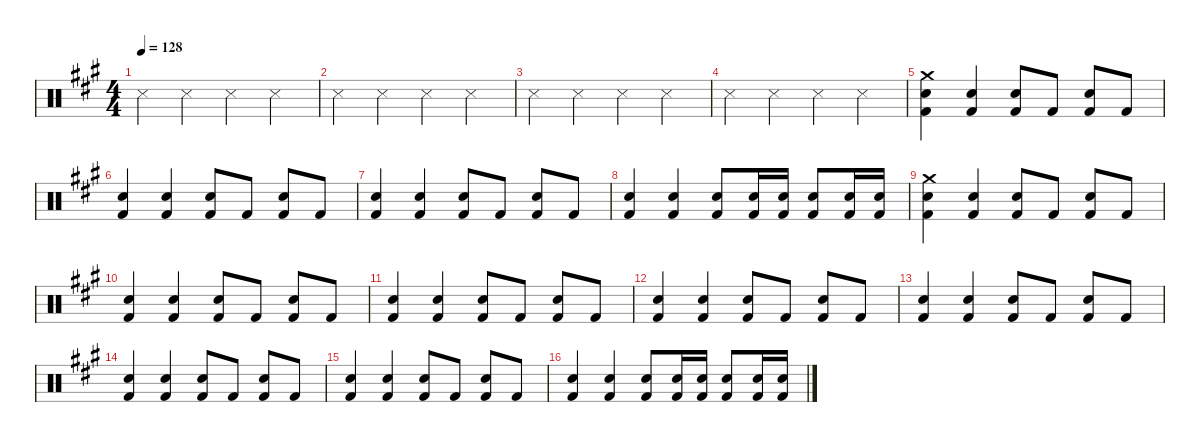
\defaultSystemsLayout 4
\hideDynamics
\bracketExtendMode nobrackets
\singleTrackTrackNamePolicy hidden
\multiTrackTrackNamePolicy hidden
\firstSystemTrackNameMode fullname
\firstSystemTrackNameOrientation horizontal
\otherSystemsTrackNameOrientation horizontal
\track ("Drumkit" "Drums") {instrument percussion}
\staff {score}
\articulation defaults
\ts (4 4)
\beaming (8 2 2 2 2)
\tempo 128
\clef neutral
\ks a "Snare (side stick) 3"{acc forcenatural}.4{dy mf beam Down} "Snare (side stick) 3"{acc forcenatural}.4{dy f beam Down} "Snare (side stick) 3"{acc forcenatural}.4{beam Down} "Snare (side stick) 3"{acc forcenatural}.4{beam Down}
|
"Snare (side stick) 3"{acc forcenatural}.4{beam Down} "Snare (side stick) 3"{acc forcenatural}.4{beam Down} "Snare (side stick) 3"{acc forcenatural}.4{beam Down} "Snare (side stick) 3"{acc forcenatural}.4{beam Down} |
"Snare (side stick) 3"{acc forcenatural}.4{beam Down} "Snare (side stick) 3"{acc forcenatural}.4{beam Down} "Snare (side stick) 3"{acc forcenatural}.4{beam Down} "Snare (side stick) 3"{acc forcenatural}.4{beam Down} |
"Snare (side stick) 3"{acc forcenatural}.4{beam Down} "Snare (side stick) 3"{acc forcenatural}.4{beam Down} "Snare (side stick) 3"{acc forcenatural}.4{beam Down} "Snare (side stick) 3"{acc forcenatural}.4{beam Down} |
("Crash medium (hit)"{acc forcenatural} "Snare (hit) 2"{acc forcenatural} "Kick (hit) 2"{acc forcenatural}).4{beam Down} ("Snare (hit) 2"{acc forcenatural} "Kick (hit) 2"{acc forcenatural}).4{beam Up} ("Snare (hit) 2"{acc forcenatural} "Kick (hit) 2"{acc forcenatural}).8{beam Up} "Kick (hit) 2"{acc forcenatural}.8{beam Up} ("Snare (hit) 2"{acc forcenatural} "Kick (hit) 2"{acc forcenatural}).8{beam Up} "Kick (hit) 2"{acc forcenatural}.8{beam Up} |
("Snare (hit) 2"{acc forcenatural} "Kick (hit) 2"{acc forcenatural}).4{beam Up} ("Snare (hit) 2"{acc forcenatural} "Kick (hit) 2"{acc forcenatural}).4{beam Up} ("Snare (hit) 2"{acc forcenatural} "Kick (hit) 2"{acc forcenatural}).8{beam Up} "Kick (hit) 2"{acc forcenatural}.8{beam Up} ("Snare (hit) 2"{acc forcenatural} "Kick (hit) 2"{acc forcenatural}).8{beam Up} "Kick (hit) 2"{acc forcenatural}.8{beam Up} |
("Snare (hit) 2"{acc forcenatural} "Kick (hit) 2"{acc forcenatural}).4{beam Up} ("Snare (hit) 2"{acc forcenatural} "Kick (hit) 2"{acc forcenatural}).4{beam Up} ("Snare (hit) 2"{acc forcenatural} "Kick (hit) 2"{acc forcenatural}).8{beam Up} "Kick (hit) 2"{acc forcenatural}.8{beam Up} ("Snare (hit) 2"{acc forcenatural} "Kick (hit) 2"{acc forcenatural}).8{beam Up} "Kick (hit) 2"{acc forcenatural}.8{beam Up} |
("Snare (hit) 2"{acc forcenatural} "Kick (hit) 2"{acc forcenatural}).4{beam Up} ("Snare (hit) 2"{acc forcenatural} "Kick (hit) 2"{acc forcenatural}).4{beam Up} ("Snare (hit) 2"{acc forcenatural} "Kick (hit) 2"{acc forcenatural}).8{beam Up} ("Snare (hit) 2"{acc forcenatural} "Kick (hit) 2"{acc forcenatural}).16{beam Up} ("Snare (hit) 2"{acc forcenatural} "Kick (hit) 2"{acc forcenatural}).16{beam Up} ("Snare (hit) 2"{acc forcenatural} "Kick (hit) 2"{acc forcenatural}).8{beam Up} ("Snare (hit) 2"{acc forcenatural} "Kick (hit) 2"{acc forcenatural}).16{beam Up} ("Snare (hit) 2"{acc forcenatural} "Kick (hit) 2"{acc forcenatural}).16{beam Up} |
("Crash medium (hit)"{acc forcenatural} "Snare (hit) 2"{acc forcenatural} "Kick (hit) 2"{acc forcenatural}).4{beam Down} ("Snare (hit) 2"{acc forcenatural} "Kick (hit) 2"{acc forcenatural}).4{beam Up} ("Snare (hit) 2"{acc forcenatural} "Kick (hit) 2"{acc forcenatural}).8{beam Up} "Kick (hit) 2"{acc forcenatural}.8{beam Up} ("Snare (hit) 2"{acc forcenatural} "Kick (hit) 2"{acc forcenatural}).8{beam Up} "Kick (hit) 2"{acc forcenatural}.8{beam Up} |
("Snare (hit) 2"{acc forcenatural} "Kick (hit) 2"{acc forcenatural}).4{beam Up} ("Snare (hit) 2"{acc forcenatural} "Kick (hit) 2"{acc forcenatural}).4{beam Up} ("Snare (hit) 2"{acc forcenatural} "Kick (hit) 2"{acc forcenatural}).8{beam Up} "Kick (hit) 2"{acc forcenatural}.8{beam Up} ("Snare (hit) 2"{acc forcenatural} "Kick (hit) 2"{acc forcenatural}).8{beam Up} "Kick (hit) 2"{acc forcenatural}.8{beam Up} |
("Snare (hit) 2"{acc forcenatural} "Kick (hit) 2"{acc forcenatural}).4{beam Up} ("Snare (hit) 2"{acc forcenatural} "Kick (hit) 2"{acc forcenatural}).4{beam Up} ("Snare (hit) 2"{acc forcenatural} "Kick (hit) 2"{acc forcenatural}).8{beam Up} "Kick (hit) 2"{acc forcenatural}.8{beam Up} ("Snare (hit) 2"{acc forcenatural} "Kick (hit) 2"{acc forcenatural}).8{beam Up} "Kick (hit) 2"{acc forcenatural}.8{beam Up} |
("Snare (hit) 2"{acc forcenatural} "Kick (hit) 2"{acc forcenatural}).4{beam Up} ("Snare (hit) 2"{acc forcenatural} "Kick (hit) 2"{acc forcenatural}).4{beam Up} ("Snare (hit) 2"{acc forcenatural} "Kick (hit) 2"{acc forcenatural}).8{beam Up} "Kick (hit) 2"{acc forcenatural}.8{beam Up} ("Snare (hit) 2"{acc forcenatural} "Kick (hit) 2"{acc forcenatural}).8{beam Up} "Kick (hit) 2"{acc forcenatural}.8{beam Up} |
("Snare (hit) 2"{acc forcenatural} "Kick (hit) 2"{acc forcenatural}).4{beam Up} ("Snare (hit) 2"{acc forcenatural} "Kick (hit) 2"{acc forcenatural}).4{beam Up} ("Snare (hit) 2"{acc forcenatural} "Kick (hit) 2"{acc forcenatural}).8{beam Up} "Kick (hit) 2"{acc forcenatural}.8{beam Up} ("Snare (hit) 2"{acc forcenatural} "Kick (hit) 2"{acc forcenatural}).8{beam Up} "Kick (hit) 2"{acc forcenatural}.8{beam Up} |
("Snare (hit) 2"{acc forcenatural} "Kick (hit) 2"{acc forcenatural}).4{beam Up} ("Snare (hit) 2"{acc forcenatural} "Kick (hit) 2"{acc forcenatural}).4{beam Up} ("Snare (hit) 2"{acc forcenatural} "Kick (hit) 2"{acc forcenatural}).8{beam Up} "Kick (hit) 2"{acc forcenatural}.8{beam Up} ("Snare (hit) 2"{acc forcenatural} "Kick (hit) 2"{acc forcenatural}).8{beam Up} "Kick (hit) 2"{acc forcenatural}.8{beam Up} |
("Snare (hit) 2"{acc forcenatural} "Kick (hit) 2"{acc forcenatural}).4{beam Up} ("Snare (hit) 2"{acc forcenatural} "Kick (hit) 2"{acc forcenatural}).4{beam Up} ("Snare (hit) 2"{acc forcenatural} "Kick (hit) 2"{acc forcenatural}).8{beam Up} "Kick (hit) 2"{acc forcenatural}.8{beam Up} ("Snare (hit) 2"{acc forcenatural} "Kick (hit) 2"{acc forcenatural}).8{beam Up} "Kick (hit) 2"{acc forcenatural}.8{beam Up} |
("Snare (hit) 2"{acc forcenatural} "Kick (hit) 2"{acc forcenatural}).4{beam Up} ("Snare (hit) 2"{acc forcenatural} "Kick (hit) 2"{acc forcenatural}).4{beam Up} ("Snare (hit) 2"{acc forcenatural} "Kick (hit) 2"{acc forcenatural}).8{beam Up} ("Snare (hit) 2"{acc forcenatural} "Kick (hit) 2"{acc forcenatural}).16{beam Up} ("Snare (hit) 2"{acc forcenatural} "Kick (hit) 2"{acc forcenatural}).16{beam Up} ("Snare (hit) 2"{acc forcenatural} "Kick (hit) 2"{acc forcenatural}).8{beam Up} ("Snare (hit) 2"{acc forcenatural} "Kick (hit) 2"{acc forcenatural}).16{beam Up} ("Snare (hit) 2"{acc forcenatural} "Kick (hit) 2"{acc forcenatural}).16{beam Up}
